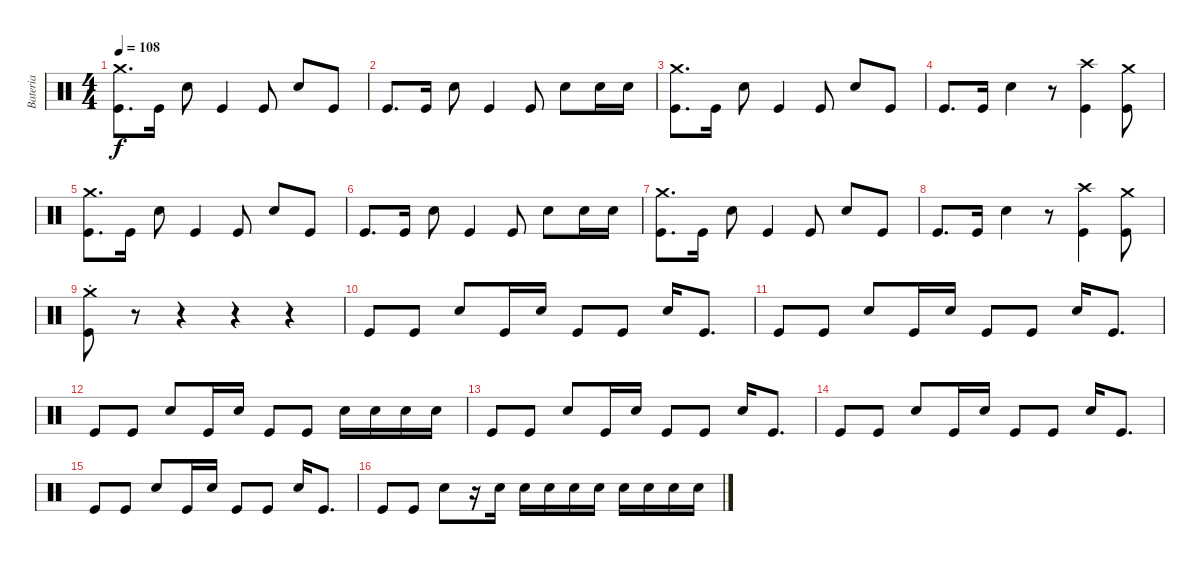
\track ("Bateria" "Bateria") {instrument percussion}
\staff {score}
\articulation defaults
\ts (4 4)
\tempo 108
\clef neutral
\ks c
("Crash medium (hit)" "Kick (hit)").8{d dy f} "Kick (hit)".16 "Snare (hit) 2".8 "Kick (hit)".4 "Kick (hit)".8 "Snare (hit) 2".8 "Kick (hit)".8 |
"Kick (hit)".8{d} "Kick (hit)".16 "Snare (hit) 2".8 "Kick (hit)".4 "Kick (hit)".8 "Snare (hit) 2".8 "Snare (hit) 2".16 "Snare (hit) 2".16 |
("Crash medium (hit)" "Kick (hit)").8{d} "Kick (hit)".16 "Snare (hit) 2".8 "Kick (hit)".4 "Kick (hit)".8 "Snare (hit) 2".8 "Kick (hit)".8 |
"Kick (hit)".8{d} "Kick (hit)".16 "Snare (hit) 2".4 r.8 ("Crash high (hit)" "Kick (hit)").4 ("Crash medium (hit)" "Kick (hit)").8 |
("Crash medium (hit)" "Kick (hit)").8{d} "Kick (hit)".16 "Snare (hit) 2".8 "Kick (hit)".4 "Kick (hit)".8 "Snare (hit) 2".8 "Kick (hit)".8 |
"Kick (hit)".8{d} "Kick (hit)".16 "Snare (hit) 2".8 "Kick (hit)".4 "Kick (hit)".8 "Snare (hit) 2".8 "Snare (hit) 2".16 "Snare (hit) 2".16 |
("Crash medium (hit)" "Kick (hit)").8{d} "Kick (hit)".16 "Snare (hit) 2".8 "Kick (hit)".4 "Kick (hit)".8 "Snare (hit) 2".8 "Kick (hit)".8 |
"Kick (hit)".8{d} "Kick (hit)".16 "Snare (hit) 2".4 r.8 ("Crash high (hit)" "Kick (hit)").4 ("Crash medium (hit)" "Kick (hit)").8 |
("Crash medium (hit)" "Kick (hit)"{st}).8 r.8 r.4 r.4 r.4 |
"Kick (hit)".8 "Kick (hit)".8 "Snare (hit) 2".8 "Kick (hit)".16 "Snare (hit) 2".16 "Kick (hit)".8 "Kick (hit)".8 "Snare (hit) 2".16 "Kick (hit)".8{d} |
"Kick (hit)".8 "Kick (hit)".8 "Snare (hit) 2".8 "Kick (hit)".16 "Snare (hit) 2".16 "Kick (hit)".8 "Kick (hit)".8 "Snare (hit) 2".16 "Kick (hit)".8{d} |
"Kick (hit)".8 "Kick (hit)".8 "Snare (hit) 2".8 "Kick (hit)".16 "Snare (hit) 2".16 "Kick (hit)".8 "Kick (hit)".8 "Snare (hit) 2".16 "Snare (hit) 2".16 "Snare (hit) 2".16 "Snare (hit) 2".16 |
"Kick (hit)".8 "Kick (hit)".8 "Snare (hit) 2".8 "Kick (hit)".16 "Snare (hit) 2".16 "Kick (hit)".8 "Kick (hit)".8 "Snare (hit) 2".16 "Kick (hit)".8{d} |
"Kick (hit)".8 "Kick (hit)".8 "Snare (hit) 2".8 "Kick (hit)".16 "Snare (hit) 2".16 "Kick (hit)".8 "Kick (hit)".8 "Snare (hit) 2".16 "Kick (hit)".8{d} |
"Kick (hit)".8 "Kick (hit)".8 "Snare (hit) 2".8 "Kick (hit)".16 "Snare (hit) 2".16 "Kick (hit)".8 "Kick (hit)".8 "Snare (hit) 2".16 "Kick (hit)".8{d} |
"Kick (hit)".8 "Kick (hit)".8 "Snare (hit) 2".8 r.16 "Snare (hit) 2".16 "Snare (hit) 2".16 "Snare (hit) 2".16 "Snare (hit) 2".16 "Snare (hit) 2".16 "Snare (hit) 2".16 "Snare (hit) 2".16 "Snare (hit) 2".16 "Snare (hit) 2".16
